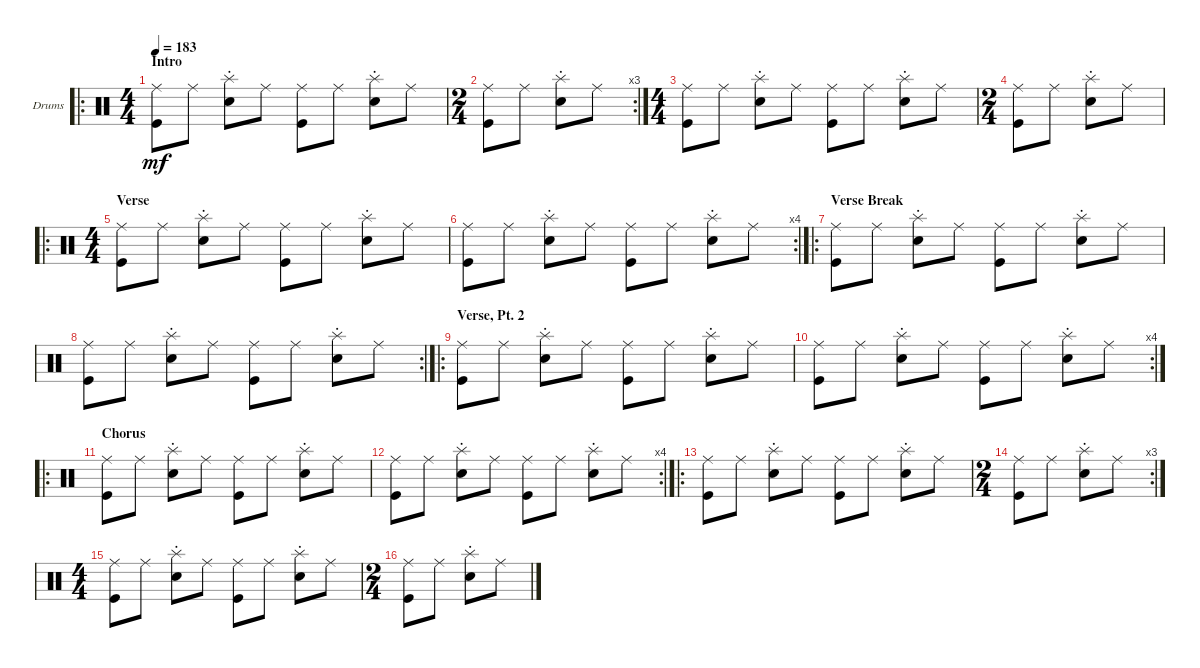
\defaultSystemsLayout 4
\bracketExtendMode groupsimilarinstruments
\firstSystemTrackNameOrientation horizontal
\otherSystemsTrackNameOrientation horizontal
\track ("Drumkit" "Drums") {instrument percussion}
\staff {score}
\articulation defaults
\ro
\ts (4 4)
\section ("" "Intro")
\tempo 183
\clef neutral
\ks c
("Ride (middle)" "Kick (hit)").8{dy mf} "Ride (middle)".8 ("Splash (hit)"{st} "Snare (hit) 2").8 "Ride (middle)".8 ("Ride (middle)" "Kick (hit)").8 "Ride (middle)".8 ("Splash (hit)"{st} "Snare (hit) 2").8 "Ride (middle)".8 |
\rc 3
\ts (2 4)
("Ride (middle)" "Kick (hit)").8 "Ride (middle)".8 ("Splash (hit)"{st} "Snare (hit) 2").8 "Ride (middle)".8 |
\ts (4 4)
("Ride (middle)" "Kick (hit)").8 "Ride (middle)".8 ("Splash (hit)"{st} "Snare (hit) 2").8 "Ride (middle)".8 ("Ride (middle)" "Kick (hit)").8 "Ride (middle)".8 ("Splash (hit)"{st} "Snare (hit) 2").8 "Ride (middle)".8 |
\ts (2 4)
("Ride (middle)" "Kick (hit)").8 "Ride (middle)".8 ("Splash (hit)"{st} "Snare (hit) 2").8 "Ride (middle)".8 |
\ro
\ts (4 4)
\section ("" "Verse")
("Ride (middle)" "Kick (hit)").8 "Ride (middle)".8 ("Splash (hit)"{st} "Snare (hit) 2").8 "Ride (middle)".8 ("Ride (middle)" "Kick (hit)").8 "Ride (middle)".8 ("Splash (hit)"{st} "Snare (hit) 2").8 "Ride (middle)".8 |
\rc 4
("Ride (middle)" "Kick (hit)").8 "Ride (middle)".8 ("Splash (hit)"{st} "Snare (hit) 2").8 "Ride (middle)".8 ("Ride (middle)" "Kick (hit)").8 "Ride (middle)".8 ("Splash (hit)"{st} "Snare (hit) 2").8 "Ride (middle)".8 |
\ro
\section ("" "Verse Break")
("Ride (middle)" "Kick (hit)").8 "Ride (middle)".8 ("Splash (hit)"{st} "Snare (hit) 2").8 "Ride (middle)".8 ("Ride (middle)" "Kick (hit)").8 "Ride (middle)".8 ("Splash (hit)"{st} "Snare (hit) 2").8 "Ride (middle)".8 |
\rc 2
("Ride (middle)" "Kick (hit)").8 "Ride (middle)".8 ("Splash (hit)"{st} "Snare (hit) 2").8 "Ride (middle)".8 ("Ride (middle)" "Kick (hit)").8 "Ride (middle)".8 ("Splash (hit)"{st} "Snare (hit) 2").8 "Ride (middle)".8 |
\ro
\section ("" "Verse, Pt. 2")
("Ride (middle)" "Kick (hit)").8 "Ride (middle)".8 ("Splash (hit)"{st} "Snare (hit) 2").8 "Ride (middle)".8 ("Ride (middle)" "Kick (hit)").8 "Ride (middle)".8 ("Splash (hit)"{st} "Snare (hit) 2").8 "Ride (middle)".8 |
\rc 4
("Ride (middle)" "Kick (hit)").8 "Ride (middle)".8 ("Splash (hit)"{st} "Snare (hit) 2").8 "Ride (middle)".8 ("Ride (middle)" "Kick (hit)").8 "Ride (middle)".8 ("Splash (hit)"{st} "Snare (hit) 2").8 "Ride (middle)".8 |
\ro
\section ("" "Chorus")
("Ride (middle)" "Kick (hit)").8 "Ride (middle)".8 ("Splash (hit)"{st} "Snare (hit) 2").8 "Ride (middle)".8 ("Ride (middle)" "Kick (hit)").8 "Ride (middle)".8 ("Splash (hit)"{st} "Snare (hit) 2").8 "Ride (middle)".8 |
\rc 4
("Ride (middle)" "Kick (hit)").8 "Ride (middle)".8 ("Splash (hit)"{st} "Snare (hit) 2").8 "Ride (middle)".8 ("Ride (middle)" "Kick (hit)").8 "Ride (middle)".8 ("Splash (hit)"{st} "Snare (hit) 2").8 "Ride (middle)".8 |
\ro
("Ride (middle)" "Kick (hit)").8 "Ride (middle)".8 ("Splash (hit)"{st} "Snare (hit) 2").8 "Ride (middle)".8 ("Ride (middle)" "Kick (hit)").8 "Ride (middle)".8 ("Splash (hit)"{st} "Snare (hit) 2").8 "Ride (middle)".8 |
\rc 3
\ts (2 4)
("Ride (middle)" "Kick (hit)").8 "Ride (middle)".8 ("Splash (hit)"{st} "Snare (hit) 2").8 "Ride (middle)".8 |
\ts (4 4)
("Ride (middle)" "Kick (hit)").8 "Ride (middle)".8 ("Splash (hit)"{st} "Snare (hit) 2").8 "Ride (middle)".8 ("Ride (middle)" "Kick (hit)").8 "Ride (middle)".8 ("Splash (hit)"{st} "Snare (hit) 2").8 "Ride (middle)".8 |
\ts (2 4)
("Ride (middle)" "Kick (hit)").8 "Ride (middle)".8 ("Splash (hit)"{st} "Snare (hit) 2").8 "Ride (middle)".8
